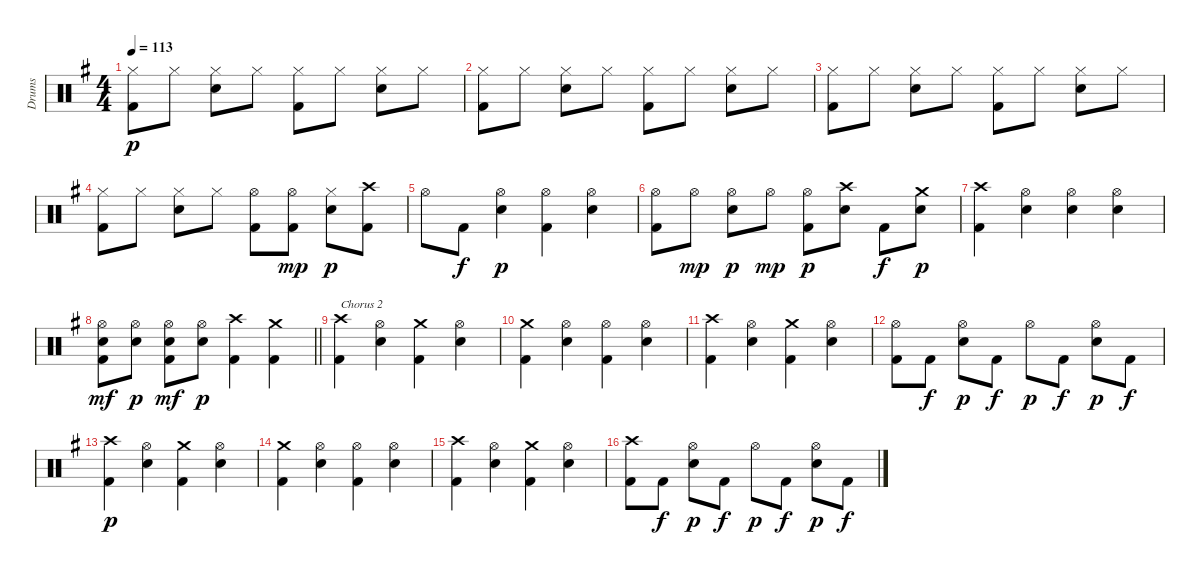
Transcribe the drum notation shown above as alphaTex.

\track ("Drums" "Drums") {instrument percussion}
\staff {score}
\articulation defaults
\ts (4 4)
\tempo 113
\clef neutral
\ks g
("Hi-Hat (closed)" "Kick (hit) 2").8{dy p} "Hi-Hat (closed)".8 ("Hi-Hat (closed)" "Electric Snare (hit)").8 "Hi-Hat (closed)".8 ("Hi-Hat (closed)" "Kick (hit) 2").8 "Hi-Hat (closed)".8 ("Hi-Hat (closed)" "Electric Snare (hit)").8 "Hi-Hat (closed)".8 |
("Hi-Hat (closed)" "Kick (hit) 2").8 "Hi-Hat (closed)".8 ("Hi-Hat (closed)" "Electric Snare (hit)").8 "Hi-Hat (closed)".8 ("Hi-Hat (closed)" "Kick (hit) 2").8 "Hi-Hat (closed)".8 ("Hi-Hat (closed)" "Electric Snare (hit)").8 "Hi-Hat (closed)".8 |
("Hi-Hat (closed)" "Kick (hit) 2").8 "Hi-Hat (closed)".8 ("Hi-Hat (closed)" "Electric Snare (hit)").8 "Hi-Hat (closed)".8 ("Hi-Hat (closed)" "Kick (hit) 2").8 "Hi-Hat (closed)".8 ("Hi-Hat (closed)" "Electric Snare (hit)").8 "Hi-Hat (closed)".8 |
("Hi-Hat (closed)" "Kick (hit) 2").8 "Hi-Hat (closed)".8 ("Hi-Hat (closed)" "Electric Snare (hit)").8 "Hi-Hat (closed)".8 ("Hi-Hat (open)" "Kick (hit) 2").8 ("Hi-Hat (open)" "Kick (hit) 2").8{dy mp} ("Hi-Hat (closed)" "Electric Snare (hit)").8{dy p} ("Crash high (hit)" "Kick (hit) 2").8 |
"Hi-Hat (open)".8 "Kick (hit) 2".8{dy f} ("Hi-Hat (open)" "Electric Snare (hit)").4{dy p} ("Hi-Hat (open)" "Kick (hit) 2").4 ("Hi-Hat (open)" "Electric Snare (hit)").4 |
("Hi-Hat (open)" "Kick (hit) 2").8 "Hi-Hat (open)".8{dy mp} ("Hi-Hat (open)" "Electric Snare (hit)").8{dy p} "Hi-Hat (open)".8{dy mp} ("Hi-Hat (open)" "Kick (hit) 2").8{dy p} ("Electric Snare (hit)" "Crash high (hit)").8 "Kick (hit) 2".8{dy f} ("Electric Snare (hit)" "Crash medium (hit)").8{dy p} |
("Crash high (hit)" "Kick (hit) 2").4 ("Hi-Hat (open)" "Electric Snare (hit)").4 ("Hi-Hat (open)" "Electric Snare (hit)").4 ("Hi-Hat (open)" "Electric Snare (hit)").4 |
\barLineRight lightlight
("Electric Snare (hit)" "Hi-Hat (open)" "Kick (hit) 2").8{dy mf} ("Electric Snare (hit)" "Hi-Hat (open)").8{dy p} ("Electric Snare (hit)" "Hi-Hat (open)" "Kick (hit) 2").8{dy mf} ("Electric Snare (hit)" "Hi-Hat (open)").8{dy p} ("Kick (hit) 2" "Crash high (hit)").4 ("Kick (hit) 2" "Crash medium (hit)").4 |
("Crash high (hit)" "Kick (hit) 2").4{txt "Chorus 2"} ("Hi-Hat (open)" "Electric Snare (hit)").4 ("Crash medium (hit)" "Kick (hit) 2").4 ("Hi-Hat (open)" "Electric Snare (hit)").4 |
("Crash medium (hit)" "Kick (hit) 2").4 ("Hi-Hat (open)" "Electric Snare (hit)").4 ("Hi-Hat (open)" "Kick (hit) 2").4 ("Hi-Hat (open)" "Electric Snare (hit)").4 |
("Crash high (hit)" "Kick (hit) 2").4 ("Hi-Hat (open)" "Electric Snare (hit)").4 ("Crash medium (hit)" "Kick (hit) 2").4 ("Hi-Hat (open)" "Electric Snare (hit)").4 |
("Kick (hit) 2" "Hi-Hat (open)").8 "Kick (hit) 2".8{dy f} ("Electric Snare (hit)" "Hi-Hat (open)").8{dy p} "Kick (hit) 2".8{dy f} "Hi-Hat (open)".8{dy p} "Kick (hit) 2".8{dy f} ("Electric Snare (hit)" "Hi-Hat (open)").8{dy p} "Kick (hit) 2".8{dy f} |
("Crash high (hit)" "Kick (hit) 2").4{dy p} ("Hi-Hat (open)" "Electric Snare (hit)").4 ("Crash medium (hit)" "Kick (hit) 2").4 ("Hi-Hat (open)" "Electric Snare (hit)").4 |
("Crash medium (hit)" "Kick (hit) 2").4 ("Hi-Hat (open)" "Electric Snare (hit)").4 ("Hi-Hat (open)" "Kick (hit) 2").4 ("Hi-Hat (open)" "Electric Snare (hit)").4 |
("Crash high (hit)" "Kick (hit) 2").4 ("Hi-Hat (open)" "Electric Snare (hit)").4 ("Crash medium (hit)" "Kick (hit) 2").4 ("Hi-Hat (open)" "Electric Snare (hit)").4 |
("Kick (hit) 2" "Crash high (hit)").8 "Kick (hit) 2".8{dy f} ("Electric Snare (hit)" "Hi-Hat (open)").8{dy p} "Kick (hit) 2".8{dy f} "Hi-Hat (open)".8{dy p} "Kick (hit) 2".8{dy f} ("Electric Snare (hit)" "Hi-Hat (open)").8{dy p} "Kick (hit) 2".8{dy f}
